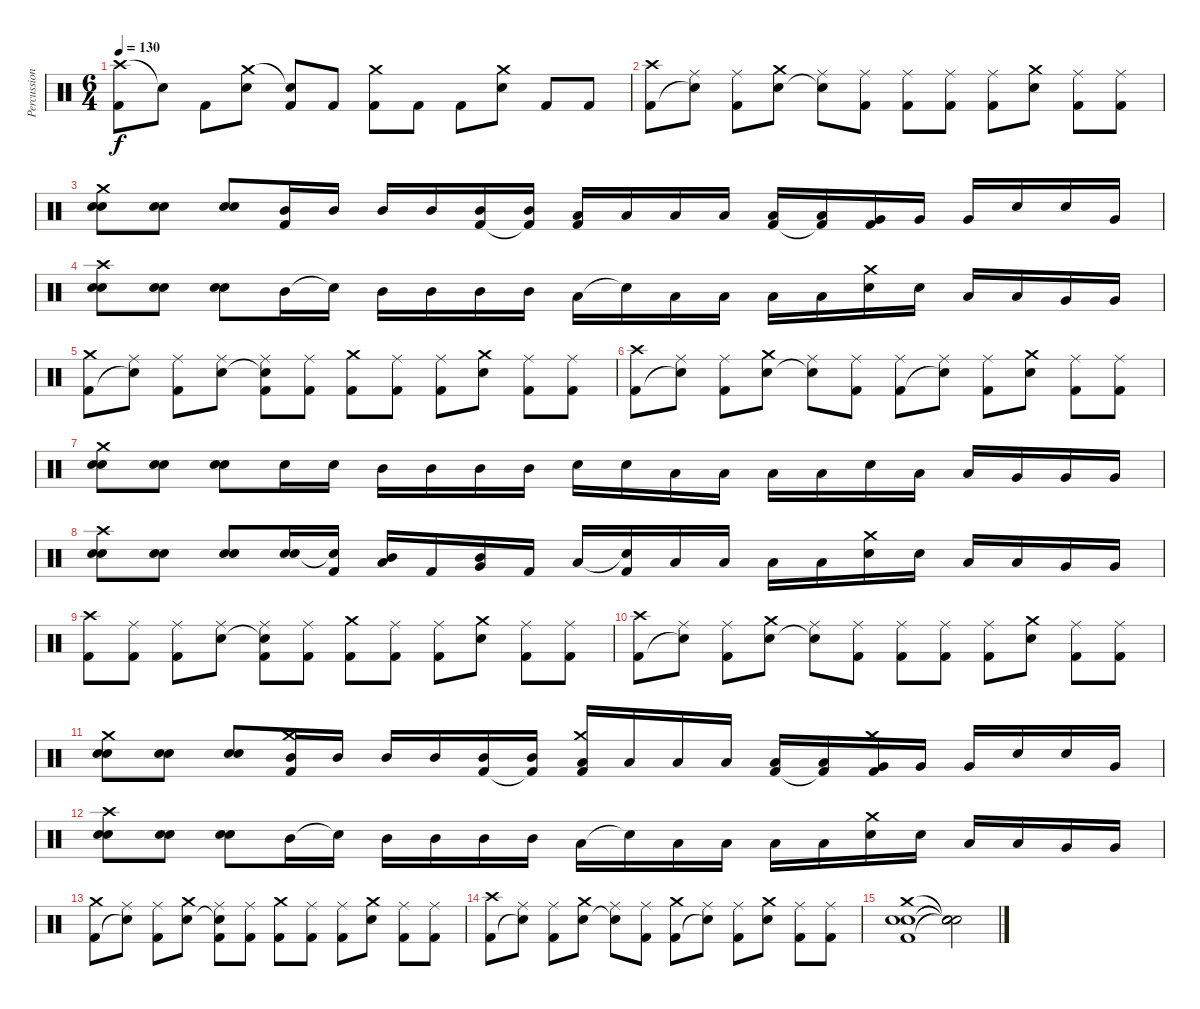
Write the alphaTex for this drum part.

\track ("Percussion" "Percussion") {instrument percussion}
\staff {score}
\articulation defaults
\ts (6 4)
\tempo 130
\clef neutral
\ks c
("Crash high (hit)" "Kick (hit) 2").8{dy f} "Snare (hit)"{t}.8 "Kick (hit) 2".8 ("Crash medium (hit)" "Snare (hit) 2").8 ("Snare (hit)"{t} "Kick (hit) 2").8 "Kick (hit) 2".8 ("Crash medium (hit)" "Kick (hit) 2").8 "Kick (hit) 2".8 "Kick (hit) 2".8 ("Crash medium (hit)" "Snare (hit) 2").8 "Kick (hit) 2".8 "Kick (hit) 2".8 |
("Crash high (hit)" "Kick (hit) 2").8 ("Ride (middle)" "Snare (hit)"{t}).8 ("Ride (middle)" "Kick (hit) 2").8 ("Crash medium (hit)" "Snare (hit) 2").8 ("Ride (middle)" "Snare (hit)"{t}).8 ("Ride (middle)" "Kick (hit) 2").8 ("Ride (middle)" "Kick (hit) 2").8 ("Ride (middle)" "Kick (hit) 2").8 ("Ride (middle)" "Kick (hit) 2").8 ("Crash medium (hit)" "Snare (hit) 2").8 ("Ride (middle)" "Kick (hit) 2").8 ("Ride (middle)" "Kick (hit) 2").8 |
("Snare (hit) 2" "Snare (hit) 2" "Crash medium (hit)").8{bd 60} ("Snare (hit) 2" "Snare (hit) 2").8{bd 60} ("Snare (hit) 2" "Snare (hit) 2").8{bd 60} ("Mid Tom (hit)" "Kick (hit) 2").16 "Mid Tom (hit)".16 "Mid Tom (hit)".16 "Mid Tom (hit)".16 ("Mid Tom (hit)" "Kick (hit) 2").16 ("Mid Tom (hit)" "Kick (hit) 2"{t}).16 ("Low Tom (hit)" "Kick (hit) 2").16 "Low Tom (hit)".16 "Low Tom (hit)".16 "Low Tom (hit)".16 ("Low Tom (hit)" "Kick (hit) 2").16 ("Low Tom (hit)" "Kick (hit) 2"{t}).16 ("Very Low Tom (hit)" "Kick (hit) 2").16 "Very Low Tom (hit)".16 "Very Low Tom (hit)".16 "Snare (hit) 2".16 "Snare (hit) 2".16 "Very Low Tom (hit)".16 |
("Snare (hit) 2" "Snare (hit) 2" "Crash high (hit)").8{bd 60} ("Snare (hit) 2" "Snare (hit) 2").8{bd 60} ("Snare (hit) 2" "Snare (hit) 2").8{bd 60} "Mid Tom (hit)".16 "Snare (hit)"{t}.16 "Mid Tom (hit)".16 "Mid Tom (hit)".16 "Mid Tom (hit)".16 "Mid Tom (hit)".16 "Low Tom (hit)".16 "Snare (hit)"{t}.16 "Low Tom (hit)".16 "Low Tom (hit)".16 "Low Tom (hit)".16 "Low Tom (hit)".16 ("Crash medium (hit)" "Snare (hit) 2").16 "Snare (hit) 2".16 "Low Tom (hit)".16 "Low Tom (hit)".16 "Very Low Tom (hit)".16 "Very Low Tom (hit)".16 |
("Crash medium (hit)" "Kick (hit) 2").8 ("Ride (middle)" "Snare (hit)"{t}).8 ("Ride (middle)" "Kick (hit) 2").8 ("Ride (middle)" "Snare (hit) 2").8 ("Ride (middle)" "Snare (hit)"{t} "Kick (hit) 2").8 ("Ride (middle)" "Kick (hit) 2").8 ("Crash medium (hit)" "Kick (hit) 2").8 ("Ride (middle)" "Kick (hit) 2").8 ("Ride (middle)" "Kick (hit) 2").8 ("Crash medium (hit)" "Snare (hit) 2").8 ("Ride (middle)" "Kick (hit) 2").8 ("Ride (middle)" "Kick (hit) 2").8 |
("Crash high (hit)" "Kick (hit) 2").8 ("Ride (middle)" "Snare (hit)"{t}).8 ("Ride (middle)" "Kick (hit) 2").8 ("Crash medium (hit)" "Snare (hit) 2").8 ("Ride (middle)" "Snare (hit)"{t}).8 ("Ride (middle)" "Kick (hit) 2").8 ("Ride (middle)" "Kick (hit) 2").8 ("Ride (middle)" "Snare (hit)"{t}).8 ("Ride (middle)" "Kick (hit) 2").8 ("Crash medium (hit)" "Snare (hit) 2").8 ("Ride (middle)" "Kick (hit) 2").8 ("Ride (middle)" "Kick (hit) 2").8 |
("Snare (hit) 2" "Snare (hit) 2" "Crash medium (hit)").8{bd 60} ("Snare (hit) 2" "Snare (hit) 2").8{bd 60} ("Snare (hit) 2" "Snare (hit) 2").8{bd 60} "Snare (hit) 2".16 "Snare (hit) 2".16 "Mid Tom (hit)".16 "Mid Tom (hit)".16 "Mid Tom (hit)".16 "Mid Tom (hit)".16 "Snare (hit) 2".16 "Snare (hit) 2".16 "Low Tom (hit)".16 "Low Tom (hit)".16 "Low Tom (hit)".16 "Low Tom (hit)".16 "Electric Snare (hit)".16 "Low Tom (hit)".16 "Low Tom (hit)".16 "Very Low Tom (hit)".16 "Very Low Tom (hit)".16 "Very Low Tom (hit)".16 |
("Snare (hit) 2" "Snare (hit) 2" "Crash high (hit)").8{bd 60} ("Snare (hit) 2" "Snare (hit) 2").8{bd 60} ("Snare (hit) 2" "Snare (hit) 2").8{bd 60} ("Snare (hit) 2" "Snare (hit) 2").16{bd 60} ("Snare (hit)"{t} "Kick (hit) 2").16 ("Low Tom (hit)" "Mid Tom (hit)").16{bd 60} "Kick (hit) 2".16 ("Very Low Tom (hit)" "Mid Tom (hit)").16{bd 60} "Kick (hit) 2".16 "Low Tom (hit)".16 ("Snare (hit)"{t} "Kick (hit) 2").16 "Low Tom (hit)".16 "Low Tom (hit)".16 "Low Tom (hit)".16 "Low Tom (hit)".16 ("Crash medium (hit)" "Snare (hit) 2").16 "Snare (hit) 2".16 "Low Tom (hit)".16 "Low Tom (hit)".16 "Very Low Tom (hit)".16 "Very Low Tom (hit)".16 |
("Crash high (hit)" "Kick (hit) 2").8 ("Ride (middle)" "Kick (hit) 2").8 ("Ride (middle)" "Kick (hit) 2").8 ("Ride (middle)" "Snare (hit) 2").8 ("Ride (middle)" "Snare (hit)"{t} "Kick (hit) 2").8 ("Ride (middle)" "Kick (hit) 2").8 ("Crash medium (hit)" "Kick (hit) 2").8 ("Ride (middle)" "Kick (hit) 2").8 ("Ride (middle)" "Kick (hit) 2").8 ("Crash medium (hit)" "Snare (hit) 2").8 ("Ride (middle)" "Kick (hit) 2").8 ("Ride (middle)" "Kick (hit) 2").8 |
("Crash high (hit)" "Kick (hit) 2").8 ("Ride (middle)" "Snare (hit)"{t}).8 ("Ride (middle)" "Kick (hit) 2").8 ("Crash medium (hit)" "Snare (hit) 2").8 ("Ride (middle)" "Snare (hit)"{t}).8 ("Ride (middle)" "Kick (hit) 2").8 ("Ride (middle)" "Kick (hit) 2").8 ("Ride (middle)" "Kick (hit) 2").8 ("Ride (middle)" "Kick (hit) 2").8 ("Crash medium (hit)" "Snare (hit) 2").8 ("Ride (middle)" "Kick (hit) 2").8 ("Ride (middle)" "Kick (hit) 2").8 |
("Snare (hit) 2" "Snare (hit) 2" "Crash medium (hit)").8{bd 60} ("Snare (hit) 2" "Snare (hit) 2").8{bd 60} ("Snare (hit) 2" "Snare (hit) 2").8{bd 60} ("Crash medium (hit)" "Mid Tom (hit)" "Kick (hit) 2").16 "Mid Tom (hit)".16 "Mid Tom (hit)".16 "Mid Tom (hit)".16 ("Mid Tom (hit)" "Kick (hit) 2").16 ("Mid Tom (hit)" "Kick (hit) 2"{t}).16 ("Crash medium (hit)" "Low Tom (hit)" "Kick (hit) 2").16 "Low Tom (hit)".16 "Low Tom (hit)".16 "Low Tom (hit)".16 ("Low Tom (hit)" "Kick (hit) 2").16 ("Low Tom (hit)" "Kick (hit) 2"{t}).16 ("Crash medium (hit)" "Very Low Tom (hit)" "Kick (hit) 2").16 "Very Low Tom (hit)".16 "Very Low Tom (hit)".16 "Snare (hit) 2".16 "Snare (hit) 2".16 "Very Low Tom (hit)".16 |
("Snare (hit) 2" "Snare (hit) 2" "Crash high (hit)").8{bd 60} ("Snare (hit) 2" "Snare (hit) 2").8{bd 60} ("Snare (hit) 2" "Snare (hit) 2").8{bd 60} "Mid Tom (hit)".16 "Snare (hit)"{t}.16 "Mid Tom (hit)".16 "Mid Tom (hit)".16 "Mid Tom (hit)".16 "Mid Tom (hit)".16 "Low Tom (hit)".16 "Snare (hit)"{t}.16 "Low Tom (hit)".16 "Low Tom (hit)".16 "Low Tom (hit)".16 "Low Tom (hit)".16 ("Crash medium (hit)" "Snare (hit) 2").16 "Snare (hit) 2".16 "Low Tom (hit)".16 "Low Tom (hit)".16 "Very Low Tom (hit)".16 "Very Low Tom (hit)".16 |
("Crash medium (hit)" "Kick (hit) 2").8 ("Ride (middle)" "Snare (hit)"{t}).8 ("Ride (middle)" "Kick (hit) 2").8 ("Crash medium (hit)" "Snare (hit) 2").8 ("Ride (middle)" "Snare (hit)"{t} "Kick (hit) 2").8 ("Ride (middle)" "Kick (hit) 2").8 ("Crash medium (hit)" "Kick (hit) 2").8 ("Ride (middle)" "Kick (hit) 2").8 ("Ride (middle)" "Kick (hit) 2").8 ("Crash medium (hit)" "Snare (hit) 2").8 ("Ride (middle)" "Kick (hit) 2").8 ("Ride (middle)" "Kick (hit) 2").8 |
("Crash high (hit)" "Kick (hit) 2").8 ("Ride (middle)" "Snare (hit)"{t}).8 ("Ride (middle)" "Kick (hit) 2").8 ("Crash medium (hit)" "Snare (hit) 2").8 ("Ride (middle)" "Snare (hit)"{t}).8 ("Ride (middle)" "Kick (hit) 2").8 ("Crash medium (hit)" "Kick (hit) 2").8 ("Ride (middle)" "Snare (hit)"{t}).8 ("Ride (middle)" "Kick (hit) 2").8 ("Crash medium (hit)" "Snare (hit) 2").8 ("Ride (middle)" "Kick (hit) 2").8 ("Ride (middle)" "Kick (hit) 2").8 |
("Crash medium (hit)" "Snare (hit) 2" "Kick (hit) 2" "Snare (hit) 2").1{bu 60} ("Snare (hit)"{t} "Snare (hit)"{t} "Snare (hit)"{t} "Snare (hit)"{t}).2
